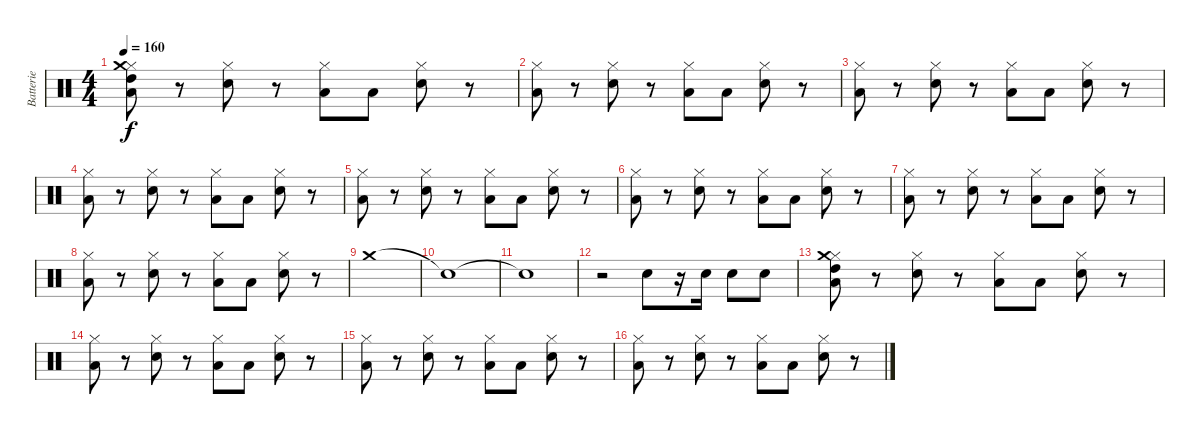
\track ("Batterie" "Batterie") {instrument percussion}
\staff {score}
\articulation defaults
\ts (4 4)
\tempo 160
\clef neutral
\ks c
("Hi-Hat (closed)" "Low Floor Tom (hit)" "Crash medium (hit)" "High Tom (hit)").8{dy f} r.8 ("Hi-Hat (closed)" "Electric Snare (hit)").8 r.8 ("Hi-Hat (closed)" "Low Floor Tom (hit)").8 "Low Floor Tom (hit)".8 ("Hi-Hat (closed)" "Electric Snare (hit)").8 r.8 |
("Hi-Hat (closed)" "Low Floor Tom (hit)").8 r.8 ("Hi-Hat (closed)" "Electric Snare (hit)").8 r.8 ("Hi-Hat (closed)" "Low Floor Tom (hit)").8 "Low Floor Tom (hit)".8 ("Hi-Hat (closed)" "Electric Snare (hit)").8 r.8 |
("Hi-Hat (closed)" "Low Floor Tom (hit)").8 r.8 ("Hi-Hat (closed)" "Electric Snare (hit)").8 r.8 ("Hi-Hat (closed)" "Low Floor Tom (hit)").8 "Low Floor Tom (hit)".8 ("Hi-Hat (closed)" "Electric Snare (hit)").8 r.8 |
("Hi-Hat (closed)" "Low Floor Tom (hit)").8 r.8 ("Hi-Hat (closed)" "Electric Snare (hit)").8 r.8 ("Hi-Hat (closed)" "Low Floor Tom (hit)").8 "Low Floor Tom (hit)".8 ("Hi-Hat (closed)" "Electric Snare (hit)").8 r.8 |
("Hi-Hat (closed)" "Low Floor Tom (hit)").8 r.8 ("Hi-Hat (closed)" "Electric Snare (hit)").8 r.8 ("Hi-Hat (closed)" "Low Floor Tom (hit)").8 "Low Floor Tom (hit)".8 ("Hi-Hat (closed)" "Electric Snare (hit)").8 r.8 |
("Hi-Hat (closed)" "Low Floor Tom (hit)").8 r.8 ("Hi-Hat (closed)" "Electric Snare (hit)").8 r.8 ("Hi-Hat (closed)" "Low Floor Tom (hit)").8 "Low Floor Tom (hit)".8 ("Hi-Hat (closed)" "Electric Snare (hit)").8 r.8 |
("Hi-Hat (closed)" "Low Floor Tom (hit)").8 r.8 ("Hi-Hat (closed)" "Electric Snare (hit)").8 r.8 ("Hi-Hat (closed)" "Low Floor Tom (hit)").8 "Low Floor Tom (hit)".8 ("Hi-Hat (closed)" "Electric Snare (hit)").8 r.8 |
("Hi-Hat (closed)" "Low Floor Tom (hit)").8 r.8 ("Hi-Hat (closed)" "Electric Snare (hit)").8 r.8 ("Hi-Hat (closed)" "Low Floor Tom (hit)").8 "Low Floor Tom (hit)".8 ("Hi-Hat (closed)" "Electric Snare (hit)").8 r.8 |
"Crash medium (hit)".1 |
"Snare (hit)"{t}.1 |
"Snare (hit)"{t}.1 |
r.2 "Snare (hit) 2".8 r.16 "Snare (hit) 2".16 "Snare (hit) 2".8 "Snare (hit) 2".8 |
("Hi-Hat (closed)" "Low Floor Tom (hit)" "Crash medium (hit)" "High Tom (hit)").8 r.8 ("Hi-Hat (closed)" "Electric Snare (hit)").8 r.8 ("Hi-Hat (closed)" "Low Floor Tom (hit)").8 "Low Floor Tom (hit)".8 ("Hi-Hat (closed)" "Electric Snare (hit)").8 r.8 |
("Hi-Hat (closed)" "Low Floor Tom (hit)").8 r.8 ("Hi-Hat (closed)" "Electric Snare (hit)").8 r.8 ("Hi-Hat (closed)" "Low Floor Tom (hit)").8 "Low Floor Tom (hit)".8 ("Hi-Hat (closed)" "Electric Snare (hit)").8 r.8 |
("Hi-Hat (closed)" "Low Floor Tom (hit)").8 r.8 ("Hi-Hat (closed)" "Electric Snare (hit)").8 r.8 ("Hi-Hat (closed)" "Low Floor Tom (hit)").8 "Low Floor Tom (hit)".8 ("Hi-Hat (closed)" "Electric Snare (hit)").8 r.8 |
("Hi-Hat (closed)" "Low Floor Tom (hit)").8 r.8 ("Hi-Hat (closed)" "Electric Snare (hit)").8 r.8 ("Hi-Hat (closed)" "Low Floor Tom (hit)").8 "Low Floor Tom (hit)".8 ("Hi-Hat (closed)" "Electric Snare (hit)").8 r.8
